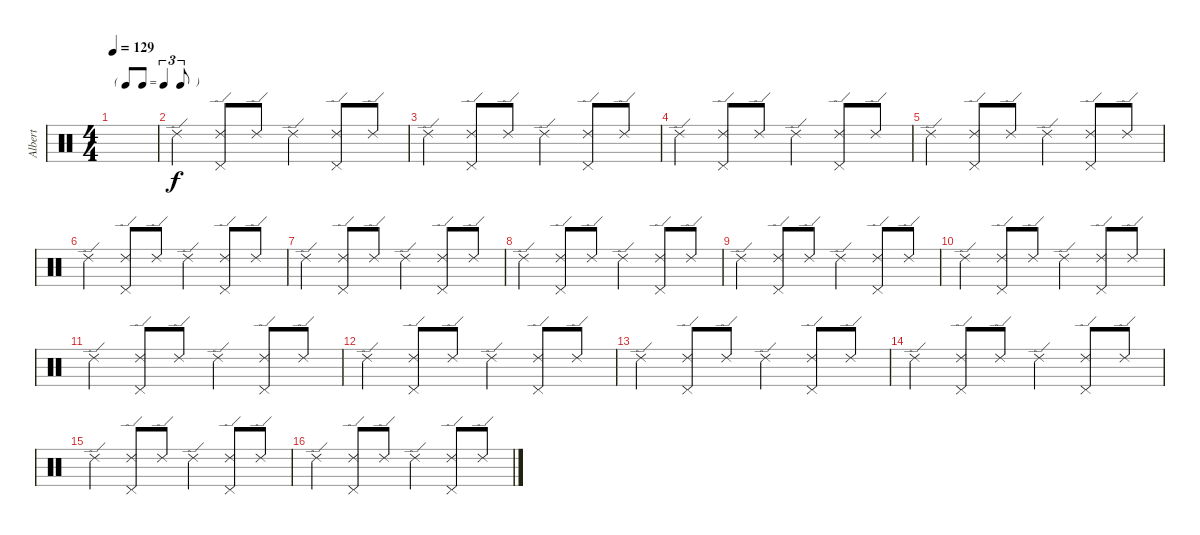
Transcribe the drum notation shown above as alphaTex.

\track ("Albert" "Albert") {instrument percussion}
\staff {score}
\articulation defaults
\ts (4 4)
\tf triplet8th
\tempo 129
\clef neutral
\ks c
|
"Ride (edge) 2".4 ("Ride (edge) 2" "Pedal Hi-Hat (hit)").8 "Ride (edge) 2".8 "Ride (edge) 2".4 ("Ride (edge) 2" "Pedal Hi-Hat (hit)").8 "Ride (edge) 2".8 |
"Ride (edge) 2".4 ("Ride (edge) 2" "Pedal Hi-Hat (hit)").8 "Ride (edge) 2".8 "Ride (edge) 2".4 ("Ride (edge) 2" "Pedal Hi-Hat (hit)").8 "Ride (edge) 2".8 |
"Ride (edge) 2".4 ("Ride (edge) 2" "Pedal Hi-Hat (hit)").8 "Ride (edge) 2".8 "Ride (edge) 2".4 ("Ride (edge) 2" "Pedal Hi-Hat (hit)").8 "Ride (edge) 2".8 |
"Ride (edge) 2".4 ("Ride (edge) 2" "Pedal Hi-Hat (hit)").8 "Ride (edge) 2".8 "Ride (edge) 2".4 ("Ride (edge) 2" "Pedal Hi-Hat (hit)").8 "Ride (edge) 2".8 |
"Ride (edge) 2".4 ("Ride (edge) 2" "Pedal Hi-Hat (hit)").8 "Ride (edge) 2".8 "Ride (edge) 2".4 ("Ride (edge) 2" "Pedal Hi-Hat (hit)").8 "Ride (edge) 2".8 |
"Ride (edge) 2".4 ("Ride (edge) 2" "Pedal Hi-Hat (hit)").8 "Ride (edge) 2".8 "Ride (edge) 2".4 ("Ride (edge) 2" "Pedal Hi-Hat (hit)").8 "Ride (edge) 2".8 |
"Ride (edge) 2".4 ("Ride (edge) 2" "Pedal Hi-Hat (hit)").8 "Ride (edge) 2".8 "Ride (edge) 2".4 ("Ride (edge) 2" "Pedal Hi-Hat (hit)").8 "Ride (edge) 2".8 |
"Ride (edge) 2".4 ("Ride (edge) 2" "Pedal Hi-Hat (hit)").8 "Ride (edge) 2".8 "Ride (edge) 2".4 ("Ride (edge) 2" "Pedal Hi-Hat (hit)").8 "Ride (edge) 2".8 |
"Ride (edge) 2".4 ("Ride (edge) 2" "Pedal Hi-Hat (hit)").8 "Ride (edge) 2".8 "Ride (edge) 2".4 ("Ride (edge) 2" "Pedal Hi-Hat (hit)").8 "Ride (edge) 2".8 |
"Ride (edge) 2".4 ("Ride (edge) 2" "Pedal Hi-Hat (hit)").8 "Ride (edge) 2".8 "Ride (edge) 2".4 ("Ride (edge) 2" "Pedal Hi-Hat (hit)").8 "Ride (edge) 2".8 |
"Ride (edge) 2".4 ("Ride (edge) 2" "Pedal Hi-Hat (hit)").8 "Ride (edge) 2".8 "Ride (edge) 2".4 ("Ride (edge) 2" "Pedal Hi-Hat (hit)").8 "Ride (edge) 2".8 |
"Ride (edge) 2".4 ("Ride (edge) 2" "Pedal Hi-Hat (hit)").8 "Ride (edge) 2".8 "Ride (edge) 2".4 ("Ride (edge) 2" "Pedal Hi-Hat (hit)").8 "Ride (edge) 2".8 |
"Ride (edge) 2".4 ("Ride (edge) 2" "Pedal Hi-Hat (hit)").8 "Ride (edge) 2".8 "Ride (edge) 2".4 ("Ride (edge) 2" "Pedal Hi-Hat (hit)").8 "Ride (edge) 2".8 |
"Ride (edge) 2".4 ("Ride (edge) 2" "Pedal Hi-Hat (hit)").8 "Ride (edge) 2".8 "Ride (edge) 2".4 ("Ride (edge) 2" "Pedal Hi-Hat (hit)").8 "Ride (edge) 2".8 |
"Ride (edge) 2".4 ("Ride (edge) 2" "Pedal Hi-Hat (hit)").8 "Ride (edge) 2".8 "Ride (edge) 2".4 ("Ride (edge) 2" "Pedal Hi-Hat (hit)").8 "Ride (edge) 2".8
